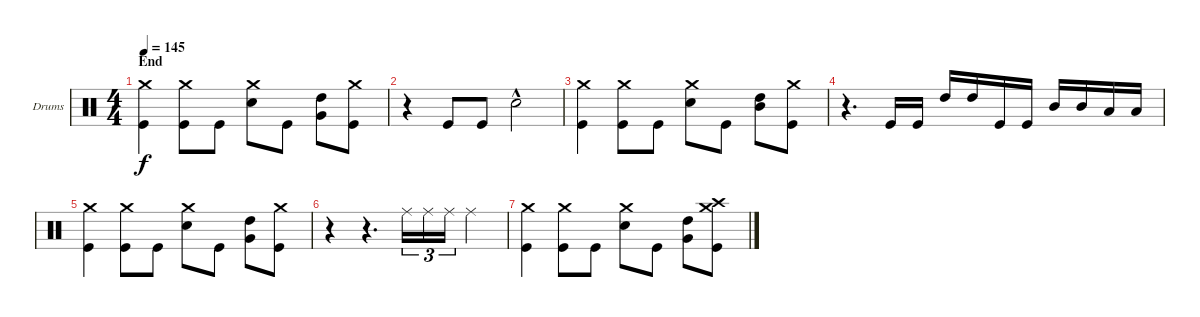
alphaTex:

\bracketExtendMode groupsimilarinstruments
\firstSystemTrackNameOrientation horizontal
\otherSystemsTrackNameOrientation horizontal
\track ("drums (Anton Zulganov)" "Drums") {instrument percussion}
\staff {score}
\articulation defaults
\ts (4 4)
\section ("" "End")
\tempo 145
\clef neutral
\ks aminor
("Crash medium (hit)" "Kick (hit)").4{dy f} ("Crash medium (hit)" "Kick (hit)").8 "Kick (hit)".8 ("Crash medium (hit)" "Snare (hit) 2").8 "Kick (hit)".8 ("High Tom (hit)" "Very Low Tom (hit)").8 ("Kick (hit)" "Crash medium (hit)").8 |
r.4 "Kick (hit)".8 "Kick (hit)".8 "Snare (hit) 2"{hac}.2 |
("Crash medium (hit)" "Kick (hit)").4 ("Crash medium (hit)" "Kick (hit)").8 "Kick (hit)".8 ("Crash medium (hit)" "Snare (hit) 2").8 "Kick (hit)".8 ("High Tom (hit)" "Mid Tom (hit)").8 ("Kick (hit)" "Crash medium (hit)").8 |
r.4{d} "Kick (hit)".16 "Kick (hit)".16 "High Tom (hit)".16 "High Tom (hit)".16 "Kick (hit)".16 "Kick (hit)".16 "Mid Tom (hit)".16 "Mid Tom (hit)".16 "Low Tom (hit)".16 "Low Tom (hit)".16 |
("Crash medium (hit)" "Kick (hit)").4 ("Crash medium (hit)" "Kick (hit)").8 "Kick (hit)".8 ("Crash medium (hit)" "Snare (hit) 2").8 "Kick (hit)".8 ("High Tom (hit)" "Very Low Tom (hit)").8 ("Kick (hit)" "Crash medium (hit)").8 |
r.4 r.4{d} "Ride (middle)".16{tu (3 2)} "Ride (middle)".16{tu (3 2)} "Ride (middle)".16{tu (3 2)} "Ride (middle)".4 |
("Crash medium (hit)" "Kick (hit)").4 ("Crash medium (hit)" "Kick (hit)").8 "Kick (hit)".8 ("Crash medium (hit)" "Snare (hit) 2").8 "Kick (hit)".8 ("High Tom (hit)" "Very Low Tom (hit)").8 ("Crash medium (hit)" "Kick (hit)" "Crash high (hit)").8
